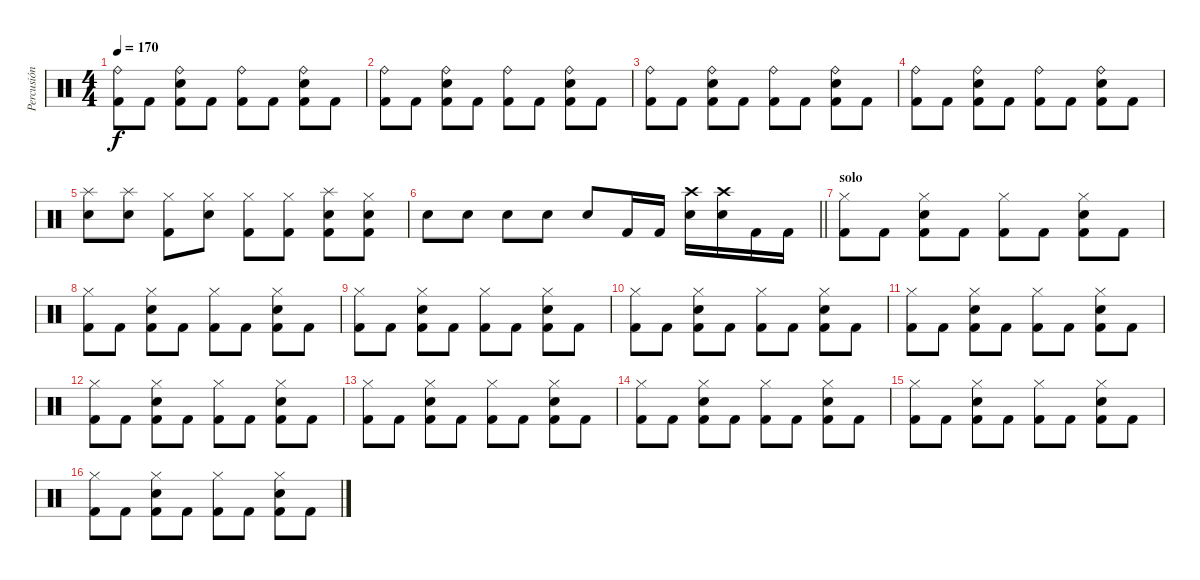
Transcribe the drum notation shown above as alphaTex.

\track ("Percusión" "Percusión") {instrument percussion}
\staff {score}
\articulation defaults
\ts (4 4)
\tempo 170
\clef neutral
\ks c
("Ride (bell)" "Kick (hit) 2").8{dy f} "Kick (hit) 2".8 ("Ride (bell)" "Electric Snare (hit)" "Kick (hit) 2").8 "Kick (hit) 2".8 ("Ride (bell)" "Kick (hit) 2").8 "Kick (hit) 2".8 ("Ride (bell)" "Electric Snare (hit)" "Kick (hit) 2").8 "Kick (hit) 2".8 |
("Ride (bell)" "Kick (hit) 2").8 "Kick (hit) 2".8 ("Ride (bell)" "Electric Snare (hit)" "Kick (hit) 2").8 "Kick (hit) 2".8 ("Ride (bell)" "Kick (hit) 2").8 "Kick (hit) 2".8 ("Ride (bell)" "Electric Snare (hit)" "Kick (hit) 2").8 "Kick (hit) 2".8 |
("Ride (bell)" "Kick (hit) 2").8 "Kick (hit) 2".8 ("Ride (bell)" "Electric Snare (hit)" "Kick (hit) 2").8 "Kick (hit) 2".8 ("Ride (bell)" "Kick (hit) 2").8 "Kick (hit) 2".8 ("Ride (bell)" "Electric Snare (hit)" "Kick (hit) 2").8 "Kick (hit) 2".8 |
("Ride (bell)" "Kick (hit) 2").8 "Kick (hit) 2".8 ("Ride (bell)" "Electric Snare (hit)" "Kick (hit) 2").8 "Kick (hit) 2".8 ("Ride (bell)" "Kick (hit) 2").8 "Kick (hit) 2".8 ("Ride (bell)" "Electric Snare (hit)" "Kick (hit) 2").8 "Kick (hit) 2".8 |
("Splash (hit)" "Electric Snare (hit)").8 ("Splash (hit)" "Electric Snare (hit)").8 ("Hi-Hat (closed)" "Kick (hit) 2").8 ("Hi-Hat (closed)" "Electric Snare (hit)").8 ("Hi-Hat (closed)" "Kick (hit) 2").8 ("Hi-Hat (closed)" "Kick (hit) 2").8 ("Splash (hit)" "Electric Snare (hit)" "Kick (hit) 2").8 ("Hi-Hat (closed)" "Electric Snare (hit)" "Kick (hit) 2").8 |
\barLineRight lightlight "Electric Snare (hit)".8 "Electric Snare (hit)".8 "Electric Snare (hit)".8 "Electric Snare (hit)".8 "Electric Snare (hit)".8 "Kick (hit) 2".16 "Kick (hit) 2".16
("Crash high (hit)" "Electric Snare (hit)").16 ("Crash high (hit)" "Electric Snare (hit)").16 "Kick (hit) 2".16 "Kick (hit) 2".16 |
\section ("" "solo")
("Hi-Hat (closed)" "Kick (hit) 2").8 "Kick (hit) 2".8 ("Hi-Hat (closed)" "Electric Snare (hit)" "Kick (hit) 2").8 "Kick (hit) 2".8 ("Hi-Hat (closed)" "Kick (hit) 2").8 "Kick (hit) 2".8 ("Hi-Hat (closed)" "Electric Snare (hit)" "Kick (hit) 2").8 "Kick (hit) 2".8 |
("Hi-Hat (closed)" "Kick (hit) 2").8 "Kick (hit) 2".8 ("Hi-Hat (closed)" "Electric Snare (hit)" "Kick (hit) 2").8 "Kick (hit) 2".8 ("Hi-Hat (closed)" "Kick (hit) 2").8 "Kick (hit) 2".8 ("Hi-Hat (closed)" "Electric Snare (hit)" "Kick (hit) 2").8 "Kick (hit) 2".8 |
("Hi-Hat (closed)" "Kick (hit) 2").8 "Kick (hit) 2".8 ("Hi-Hat (closed)" "Electric Snare (hit)" "Kick (hit) 2").8 "Kick (hit) 2".8 ("Hi-Hat (closed)" "Kick (hit) 2").8 "Kick (hit) 2".8 ("Hi-Hat (closed)" "Electric Snare (hit)" "Kick (hit) 2").8 "Kick (hit) 2".8 |
("Hi-Hat (closed)" "Kick (hit) 2").8 "Kick (hit) 2".8 ("Hi-Hat (closed)" "Electric Snare (hit)" "Kick (hit) 2").8 "Kick (hit) 2".8 ("Hi-Hat (closed)" "Kick (hit) 2").8 "Kick (hit) 2".8 ("Hi-Hat (closed)" "Electric Snare (hit)" "Kick (hit) 2").8 "Kick (hit) 2".8 |
("Hi-Hat (closed)" "Kick (hit) 2").8 "Kick (hit) 2".8 ("Hi-Hat (closed)" "Electric Snare (hit)" "Kick (hit) 2").8 "Kick (hit) 2".8 ("Hi-Hat (closed)" "Kick (hit) 2").8 "Kick (hit) 2".8 ("Hi-Hat (closed)" "Electric Snare (hit)" "Kick (hit) 2").8 "Kick (hit) 2".8 |
("Hi-Hat (closed)" "Kick (hit) 2").8 "Kick (hit) 2".8 ("Hi-Hat (closed)" "Electric Snare (hit)" "Kick (hit) 2").8 "Kick (hit) 2".8 ("Hi-Hat (closed)" "Kick (hit) 2").8 "Kick (hit) 2".8 ("Hi-Hat (closed)" "Electric Snare (hit)" "Kick (hit) 2").8 "Kick (hit) 2".8 |
("Hi-Hat (closed)" "Kick (hit) 2").8 "Kick (hit) 2".8 ("Hi-Hat (closed)" "Electric Snare (hit)" "Kick (hit) 2").8 "Kick (hit) 2".8 ("Hi-Hat (closed)" "Kick (hit) 2").8 "Kick (hit) 2".8 ("Hi-Hat (closed)" "Electric Snare (hit)" "Kick (hit) 2").8 "Kick (hit) 2".8 |
("Hi-Hat (closed)" "Kick (hit) 2").8 "Kick (hit) 2".8 ("Hi-Hat (closed)" "Electric Snare (hit)" "Kick (hit) 2").8 "Kick (hit) 2".8 ("Hi-Hat (closed)" "Kick (hit) 2").8 "Kick (hit) 2".8 ("Hi-Hat (closed)" "Electric Snare (hit)" "Kick (hit) 2").8 "Kick (hit) 2".8 |
("Hi-Hat (closed)" "Kick (hit) 2").8 "Kick (hit) 2".8 ("Hi-Hat (closed)" "Electric Snare (hit)" "Kick (hit) 2").8 "Kick (hit) 2".8 ("Hi-Hat (closed)" "Kick (hit) 2").8 "Kick (hit) 2".8 ("Hi-Hat (closed)" "Electric Snare (hit)" "Kick (hit) 2").8 "Kick (hit) 2".8 |
("Hi-Hat (closed)" "Kick (hit) 2").8 "Kick (hit) 2".8 ("Hi-Hat (closed)" "Electric Snare (hit)" "Kick (hit) 2").8 "Kick (hit) 2".8 ("Hi-Hat (closed)" "Kick (hit) 2").8 "Kick (hit) 2".8 ("Hi-Hat (closed)" "Electric Snare (hit)" "Kick (hit) 2").8 "Kick (hit) 2".8
